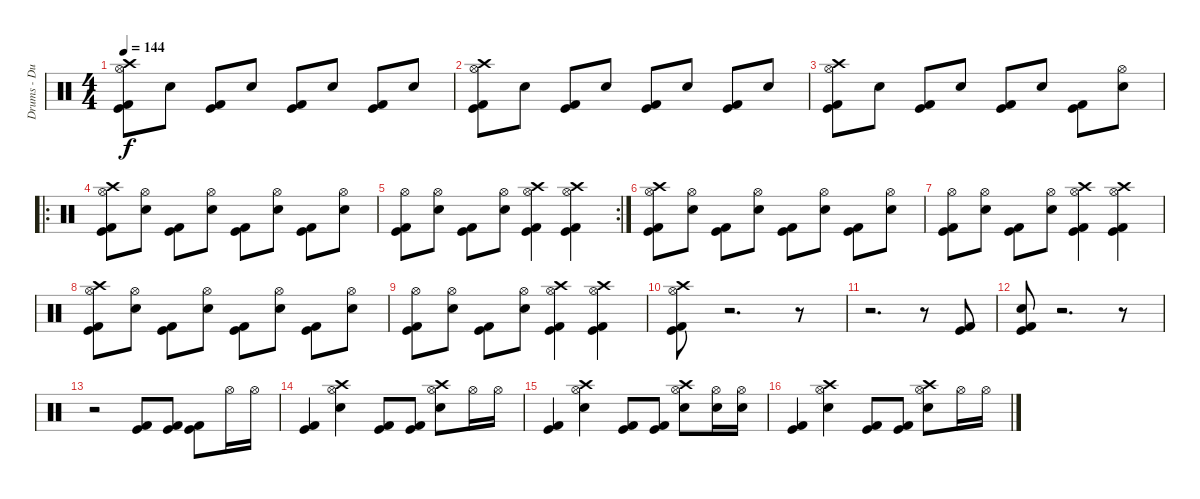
\track ("Drums - Duncan Scott" "Drums - Du") {instrument percussion}
\staff {score}
\articulation defaults
\ts (4 4)
\tempo 144
\clef neutral
\ks c
("Crash high (hit)" "Hi-Hat (open)" "Kick (hit)" "Kick (hit) 2").8{dy f} "Electric Snare (hit)".8 ("Kick (hit)" "Kick (hit) 2").8 "Electric Snare (hit)".8 ("Kick (hit)" "Kick (hit) 2").8 "Electric Snare (hit)".8 ("Kick (hit)" "Kick (hit) 2").8 "Electric Snare (hit)".8 |
("Crash high (hit)" "Hi-Hat (open)" "Kick (hit)" "Kick (hit) 2").8 "Electric Snare (hit)".8 ("Kick (hit)" "Kick (hit) 2").8 "Electric Snare (hit)".8 ("Kick (hit)" "Kick (hit) 2").8 "Electric Snare (hit)".8 ("Kick (hit)" "Kick (hit) 2").8 "Electric Snare (hit)".8 |
("Crash high (hit)" "Hi-Hat (open)" "Kick (hit)" "Kick (hit) 2").8 "Electric Snare (hit)".8 ("Kick (hit)" "Kick (hit) 2").8 "Electric Snare (hit)".8 ("Kick (hit)" "Kick (hit) 2").8 "Electric Snare (hit)".8 ("Kick (hit)" "Kick (hit) 2").8 ("Hi-Hat (open)" "Electric Snare (hit)").8 |
\ro
("Crash high (hit)" "Hi-Hat (open)" "Kick (hit)" "Kick (hit) 2").8 ("Hi-Hat (open)" "Electric Snare (hit)").8 ("Kick (hit)" "Kick (hit) 2").8 ("Hi-Hat (open)" "Electric Snare (hit)").8 ("Kick (hit)" "Kick (hit) 2").8 ("Hi-Hat (open)" "Electric Snare (hit)").8 ("Kick (hit)" "Kick (hit) 2").8 ("Hi-Hat (open)" "Electric Snare (hit)").8 |
\rc 2
("Hi-Hat (open)" "Kick (hit)" "Kick (hit) 2").8 ("Hi-Hat (open)" "Electric Snare (hit)").8 ("Kick (hit)" "Kick (hit) 2").8 ("Hi-Hat (open)" "Electric Snare (hit)").8 ("Hi-Hat (open)" "Crash high (hit)" "Kick (hit)" "Kick (hit) 2").4 ("Hi-Hat (open)" "Crash high (hit)" "Kick (hit)" "Kick (hit) 2").4 |
("Crash high (hit)" "Hi-Hat (open)" "Kick (hit)" "Kick (hit) 2").8 ("Hi-Hat (open)" "Electric Snare (hit)").8 ("Kick (hit)" "Kick (hit) 2").8 ("Hi-Hat (open)" "Electric Snare (hit)").8 ("Kick (hit)" "Kick (hit) 2").8 ("Hi-Hat (open)" "Electric Snare (hit)").8 ("Kick (hit)" "Kick (hit) 2").8 ("Hi-Hat (open)" "Electric Snare (hit)").8 |
("Hi-Hat (open)" "Kick (hit)" "Kick (hit) 2").8 ("Hi-Hat (open)" "Electric Snare (hit)").8 ("Kick (hit)" "Kick (hit) 2").8 ("Hi-Hat (open)" "Electric Snare (hit)").8 ("Hi-Hat (open)" "Crash high (hit)" "Kick (hit)" "Kick (hit) 2").4 ("Hi-Hat (open)" "Crash high (hit)" "Kick (hit)" "Kick (hit) 2").4 |
("Crash high (hit)" "Hi-Hat (open)" "Kick (hit)" "Kick (hit) 2").8 ("Electric Snare (hit)" "Hi-Hat (open)").8 ("Kick (hit)" "Kick (hit) 2").8 ("Electric Snare (hit)" "Hi-Hat (open)").8 ("Kick (hit)" "Kick (hit) 2").8 ("Electric Snare (hit)" "Hi-Hat (open)").8 ("Kick (hit)" "Kick (hit) 2").8 ("Electric Snare (hit)" "Hi-Hat (open)").8 |
("Hi-Hat (open)" "Kick (hit)" "Kick (hit) 2").8 ("Electric Snare (hit)" "Hi-Hat (open)").8 ("Kick (hit)" "Kick (hit) 2").8 ("Electric Snare (hit)" "Hi-Hat (open)").8 ("Hi-Hat (open)" "Crash high (hit)" "Kick (hit)" "Kick (hit) 2").4 ("Hi-Hat (open)" "Crash high (hit)" "Kick (hit)" "Kick (hit) 2").4 |
("Crash high (hit)" "Hi-Hat (open)" "Kick (hit)" "Kick (hit) 2").8 r.2{d} r.8 |
r.2{d} r.8 ("Kick (hit) 2" "Kick (hit)").8 |
("Electric Snare (hit)" "Kick (hit)" "Kick (hit) 2").8 r.2{d} r.8 |
r.2 ("Kick (hit) 2" "Kick (hit)").8 ("Kick (hit) 2" "Kick (hit)").8 ("Kick (hit) 2" "Kick (hit)").8 "Hi-Hat (open)".16 "Hi-Hat (open)".16 |
("Kick (hit) 2" "Kick (hit)").4 ("Crash high (hit)" "Hi-Hat (open)" "Electric Snare (hit)").4 ("Kick (hit) 2" "Kick (hit)").8 ("Kick (hit) 2" "Kick (hit)").8 ("Crash high (hit)" "Hi-Hat (open)" "Electric Snare (hit)").8 "Hi-Hat (open)".16 "Hi-Hat (open)".16 |
("Kick (hit) 2" "Kick (hit)").4 ("Crash high (hit)" "Hi-Hat (open)" "Electric Snare (hit)").4 ("Kick (hit) 2" "Kick (hit)").8 ("Kick (hit) 2" "Kick (hit)").8 ("Crash high (hit)" "Hi-Hat (open)" "Electric Snare (hit)").8 ("Hi-Hat (open)" "Electric Snare (hit)").16 ("Hi-Hat (open)" "Electric Snare (hit)").16 |
("Kick (hit) 2" "Kick (hit)").4 ("Crash high (hit)" "Hi-Hat (open)" "Electric Snare (hit)").4 ("Kick (hit) 2" "Kick (hit)").8 ("Kick (hit) 2" "Kick (hit)").8 ("Crash high (hit)" "Hi-Hat (open)" "Electric Snare (hit)").8 "Hi-Hat (open)".16 "Hi-Hat (open)".16
